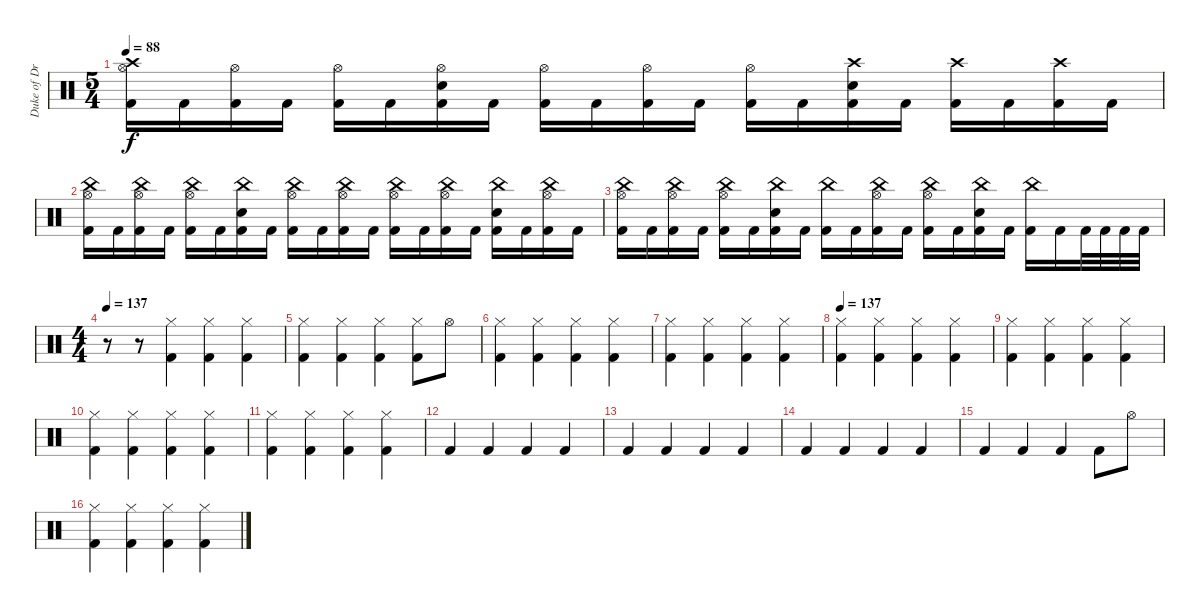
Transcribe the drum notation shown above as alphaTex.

\track ("Duke of Drumington" "Duke of Dr") {instrument percussion}
\staff {score}
\articulation defaults
\ts (5 4)
\tempo 88
\clef neutral
\ks c
("Crash high (hit)" "Hi-Hat (open)" "Kick (hit) 2").16{dy f} "Kick (hit) 2".16 ("Hi-Hat (open)" "Kick (hit) 2").16 "Kick (hit) 2".16 ("Hi-Hat (open)" "Kick (hit) 2").16 "Kick (hit) 2".16 ("Hi-Hat (open)" "Snare (hit) 2" "Kick (hit) 2").16 "Kick (hit) 2".16 ("Hi-Hat (open)" "Kick (hit) 2").16 "Kick (hit) 2".16 ("Hi-Hat (open)" "Kick (hit) 2").16 "Kick (hit) 2".16 ("Hi-Hat (open)" "Kick (hit) 2").16 "Kick (hit) 2".16 ("Crash high (hit)" "Snare (hit) 2" "Kick (hit) 2").16 "Kick (hit) 2".16 ("Crash high (hit)" "Kick (hit) 2").16 "Kick (hit) 2".16 ("Crash high (hit)" "Kick (hit) 2").16 "Kick (hit) 2".16 |
("China (hit)" "Hi-Hat (open)" "Kick (hit) 2").16 "Kick (hit) 2".16 ("China (hit)" "Hi-Hat (open)" "Kick (hit) 2").16 "Kick (hit) 2".16 ("China (hit)" "Hi-Hat (open)" "Kick (hit) 2").16 "Kick (hit) 2".16 ("China (hit)" "Snare (hit) 2" "Kick (hit) 2").16 "Kick (hit) 2".16 ("China (hit)" "Hi-Hat (open)" "Kick (hit) 2").16 "Kick (hit) 2".16 ("China (hit)" "Hi-Hat (open)" "Kick (hit) 2").16 "Kick (hit) 2".16 ("China (hit)" "Hi-Hat (open)" "Kick (hit) 2").16 "Kick (hit) 2".16 ("China (hit)" "Hi-Hat (open)" "Kick (hit) 2").16 "Kick (hit) 2".16 ("China (hit)" "Snare (hit) 2" "Kick (hit) 2").16 "Kick (hit) 2".16 ("China (hit)" "Hi-Hat (open)" "Kick (hit) 2").16 "Kick (hit) 2".16 |
("China (hit)" "Hi-Hat (open)" "Kick (hit) 2").16 "Kick (hit) 2".16 ("China (hit)" "Hi-Hat (open)" "Kick (hit) 2").16 "Kick (hit) 2".16 ("China (hit)" "Hi-Hat (open)" "Kick (hit) 2").16 "Kick (hit) 2".16 ("China (hit)" "Snare (hit) 2" "Kick (hit) 2").16 "Kick (hit) 2".16 ("China (hit)" "Kick (hit) 2").16 "Kick (hit) 2".16 ("China (hit)" "Hi-Hat (open)" "Kick (hit) 2").16 "Kick (hit) 2".16 ("China (hit)" "Hi-Hat (open)" "Kick (hit) 2").16 "Kick (hit) 2".16 ("China (hit)" "Snare (hit) 2" "Kick (hit) 2").16 "Kick (hit) 2".16 ("China (hit)" "Kick (hit) 2").16 "Kick (hit) 2".16 "Kick (hit) 2".32 "Kick (hit) 2".32 "Kick (hit) 2".32 "Kick (hit) 2".32 |
\ts (4 4)
\tempo 137
r.8 r.8 ("Hi-Hat (closed)" "Kick (hit) 2").4 ("Hi-Hat (closed)" "Kick (hit) 2").4 ("Hi-Hat (closed)" "Kick (hit) 2").4 |
("Hi-Hat (closed)" "Kick (hit) 2").4 ("Hi-Hat (closed)" "Kick (hit) 2").4 ("Hi-Hat (closed)" "Kick (hit) 2").4 ("Hi-Hat (closed)" "Kick (hit) 2").8 "Hi-Hat (open)".8 |
("Hi-Hat (closed)" "Kick (hit) 2").4 ("Hi-Hat (closed)" "Kick (hit) 2").4 ("Hi-Hat (closed)" "Kick (hit) 2").4 ("Hi-Hat (closed)" "Kick (hit) 2").4 |
("Hi-Hat (closed)" "Kick (hit) 2").4 ("Hi-Hat (closed)" "Kick (hit) 2").4 ("Hi-Hat (closed)" "Kick (hit) 2").4 ("Hi-Hat (closed)" "Kick (hit) 2").4 |
\tempo 137
("Hi-Hat (closed)" "Kick (hit) 2").4 ("Hi-Hat (closed)" "Kick (hit) 2").4 ("Hi-Hat (closed)" "Kick (hit) 2").4 ("Hi-Hat (closed)" "Kick (hit) 2").4 |
("Hi-Hat (closed)" "Kick (hit) 2").4 ("Hi-Hat (closed)" "Kick (hit) 2").4 ("Hi-Hat (closed)" "Kick (hit) 2").4 ("Hi-Hat (closed)" "Kick (hit) 2").4 |
("Hi-Hat (closed)" "Kick (hit) 2").4 ("Hi-Hat (closed)" "Kick (hit) 2").4 ("Hi-Hat (closed)" "Kick (hit) 2").4 ("Hi-Hat (closed)" "Kick (hit) 2").4 |
("Hi-Hat (closed)" "Kick (hit) 2").4 ("Hi-Hat (closed)" "Kick (hit) 2").4 ("Hi-Hat (closed)" "Kick (hit) 2").4 ("Hi-Hat (closed)" "Kick (hit) 2").4 |
"Kick (hit) 2".4 "Kick (hit) 2".4 "Kick (hit) 2".4 "Kick (hit) 2".4 |
"Kick (hit) 2".4 "Kick (hit) 2".4 "Kick (hit) 2".4 "Kick (hit) 2".4 |
"Kick (hit) 2".4 "Kick (hit) 2".4 "Kick (hit) 2".4 "Kick (hit) 2".4 |
"Kick (hit) 2".4 "Kick (hit) 2".4 "Kick (hit) 2".4 "Kick (hit) 2".8 "Hi-Hat (open)".8 |
("Hi-Hat (closed)" "Kick (hit) 2").4 ("Hi-Hat (closed)" "Kick (hit) 2").4 ("Hi-Hat (closed)" "Kick (hit) 2").4 ("Hi-Hat (closed)" "Kick (hit) 2").4
